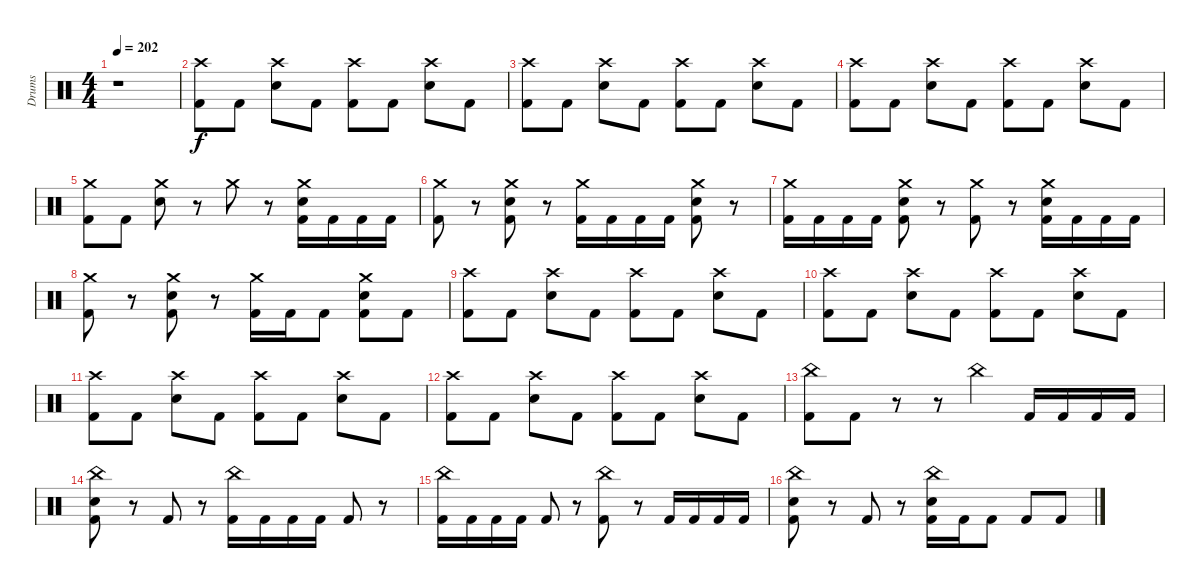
\track ("Drums" "Drums") {instrument percussion}
\staff {score}
\articulation defaults
\ts (4 4)
\tempo 202
\clef neutral
\ks c
r.1{dy f} |
("Crash high (hit)" "Kick (hit) 2").8 "Kick (hit) 2".8 ("Crash high (hit)" "Electric Snare (hit)").8 "Kick (hit) 2".8 ("Crash high (hit)" "Kick (hit) 2").8 "Kick (hit) 2".8 ("Crash high (hit)" "Electric Snare (hit)").8 "Kick (hit) 2".8 |
("Crash high (hit)" "Kick (hit) 2").8 "Kick (hit) 2".8 ("Crash high (hit)" "Electric Snare (hit)").8 "Kick (hit) 2".8 ("Crash high (hit)" "Kick (hit) 2").8 "Kick (hit) 2".8 ("Crash high (hit)" "Electric Snare (hit)").8 "Kick (hit) 2".8 |
("Crash high (hit)" "Kick (hit) 2").8 "Kick (hit) 2".8 ("Crash high (hit)" "Electric Snare (hit)").8 "Kick (hit) 2".8 ("Crash high (hit)" "Kick (hit) 2").8 "Kick (hit) 2".8 ("Crash high (hit)" "Electric Snare (hit)").8 "Kick (hit) 2".8 |
("Crash medium (hit)" "Kick (hit) 2").8 "Kick (hit) 2".8 ("Crash medium (hit)" "Electric Snare (hit)").8 r.8 "Crash medium (hit)".8 r.8 ("Crash medium (hit)" "Electric Snare (hit)" "Kick (hit) 2").16 "Kick (hit) 2".16 "Kick (hit) 2".16 "Kick (hit) 2".16 |
("Crash medium (hit)" "Kick (hit) 2").8 r.8 ("Crash medium (hit)" "Electric Snare (hit)" "Kick (hit) 2").8 r.8 ("Crash medium (hit)" "Kick (hit) 2").16 "Kick (hit) 2".16 "Kick (hit) 2".16 "Kick (hit) 2".16 ("Crash medium (hit)" "Electric Snare (hit)" "Kick (hit) 2").8 r.8 |
("Crash medium (hit)" "Kick (hit) 2").16 "Kick (hit) 2".16 "Kick (hit) 2".16 "Kick (hit) 2".16 ("Crash medium (hit)" "Electric Snare (hit)" "Kick (hit) 2").8 r.8 ("Crash medium (hit)" "Kick (hit) 2").8 r.8 ("Crash medium (hit)" "Electric Snare (hit)" "Kick (hit) 2").16 "Kick (hit) 2".16 "Kick (hit) 2".16 "Kick (hit) 2".16 |
("Crash medium (hit)" "Kick (hit) 2").8 r.8 ("Crash medium (hit)" "Electric Snare (hit)" "Kick (hit) 2").8 r.8 ("Crash medium (hit)" "Kick (hit) 2").16 "Kick (hit) 2".16 "Kick (hit) 2".8 ("Crash medium (hit)" "Electric Snare (hit)" "Kick (hit) 2").8 "Kick (hit) 2".8 |
("Crash high (hit)" "Kick (hit) 2").8 "Kick (hit) 2".8 ("Crash high (hit)" "Electric Snare (hit)").8 "Kick (hit) 2".8 ("Crash high (hit)" "Kick (hit) 2").8 "Kick (hit) 2".8 ("Crash high (hit)" "Electric Snare (hit)").8 "Kick (hit) 2".8 |
("Crash high (hit)" "Kick (hit) 2").8 "Kick (hit) 2".8 ("Crash high (hit)" "Electric Snare (hit)").8 "Kick (hit) 2".8 ("Crash high (hit)" "Kick (hit) 2").8 "Kick (hit) 2".8 ("Crash high (hit)" "Electric Snare (hit)").8 "Kick (hit) 2".8 |
("Crash high (hit)" "Kick (hit) 2").8 "Kick (hit) 2".8 ("Crash high (hit)" "Electric Snare (hit)").8 "Kick (hit) 2".8 ("Crash high (hit)" "Kick (hit) 2").8 "Kick (hit) 2".8 ("Crash high (hit)" "Electric Snare (hit)").8 "Kick (hit) 2".8 |
("Crash high (hit)" "Kick (hit) 2").8 "Kick (hit) 2".8 ("Crash high (hit)" "Electric Snare (hit)").8 "Kick (hit) 2".8 ("Crash high (hit)" "Kick (hit) 2").8 "Kick (hit) 2".8 ("Crash high (hit)" "Electric Snare (hit)").8 "Kick (hit) 2".8 |
("China (hit)" "Kick (hit) 2").8 "Kick (hit) 2".8 r.8 r.8 "China (hit)".4 "Kick (hit) 2".16 "Kick (hit) 2".16 "Kick (hit) 2".16 "Kick (hit) 2".16 |
("China (hit)" "Electric Snare (hit)" "Kick (hit) 2").8 r.8 "Kick (hit) 2".8 r.8 ("China (hit)" "Kick (hit) 2").16 "Kick (hit) 2".16 "Kick (hit) 2".16 "Kick (hit) 2".16 "Kick (hit) 2".8 r.8 |
("China (hit)" "Kick (hit) 2").16 "Kick (hit) 2".16 "Kick (hit) 2".16 "Kick (hit) 2".16 "Kick (hit) 2".8 r.8 ("China (hit)" "Kick (hit) 2").8 r.8 "Kick (hit) 2".16 "Kick (hit) 2".16 "Kick (hit) 2".16 "Kick (hit) 2".16 |
("China (hit)" "Electric Snare (hit)" "Kick (hit) 2").8 r.8 "Kick (hit) 2".8 r.8 ("China (hit)" "Electric Snare (hit)" "Kick (hit) 2").16 "Kick (hit) 2".16 "Kick (hit) 2".8 "Kick (hit) 2".8 "Kick (hit) 2".8
